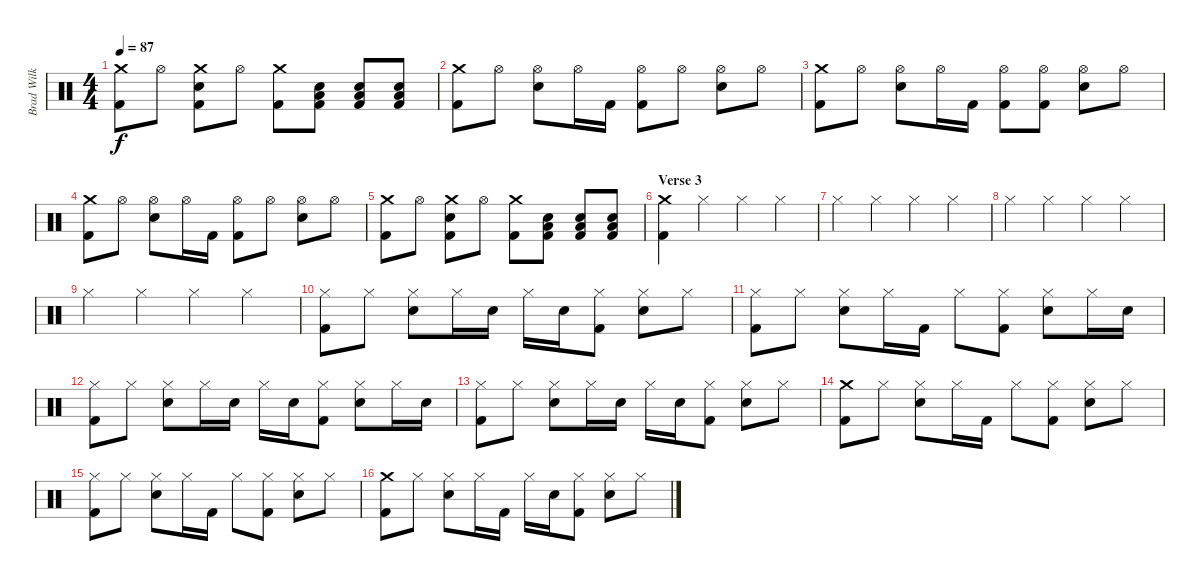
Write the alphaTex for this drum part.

\track ("Brad Wilk" "Brad Wilk") {instrument percussion}
\staff {score}
\articulation defaults
\ts (4 4)
\tempo 87
\clef neutral
\ks c
("Crash medium (hit)" "Kick (hit) 2").8{dy f} "Hi-Hat (open)".8 ("Crash medium (hit)" "Electric Snare (hit)" "Kick (hit) 2").8 "Hi-Hat (open)".8 ("Crash medium (hit)" "Kick (hit) 2").8 ("Electric Snare (hit)" "Low Tom (hit)" "Kick (hit) 2").8 ("Electric Snare (hit)" "Low Tom (hit)" "Kick (hit) 2").8 ("Electric Snare (hit)" "Low Tom (hit)" "Kick (hit) 2").8 |
("Crash medium (hit)" "Kick (hit) 2").8 "Hi-Hat (open)".8 ("Hi-Hat (open)" "Electric Snare (hit)").8 "Hi-Hat (open)".16 "Kick (hit) 2".16 ("Hi-Hat (open)" "Kick (hit) 2").8 "Hi-Hat (open)".8 ("Hi-Hat (open)" "Electric Snare (hit)").8 "Hi-Hat (open)".8 |
("Crash medium (hit)" "Kick (hit) 2").8 "Hi-Hat (open)".8 ("Hi-Hat (open)" "Electric Snare (hit)").8 "Hi-Hat (open)".16 "Kick (hit) 2".16 ("Hi-Hat (open)" "Kick (hit) 2").8 ("Hi-Hat (open)" "Kick (hit) 2").8 ("Hi-Hat (open)" "Electric Snare (hit)").8 "Hi-Hat (open)".8 |
("Crash medium (hit)" "Kick (hit) 2").8 "Hi-Hat (open)".8 ("Hi-Hat (open)" "Electric Snare (hit)").8 "Hi-Hat (open)".16 "Kick (hit) 2".16 ("Hi-Hat (open)" "Kick (hit) 2").8 "Hi-Hat (open)".8 ("Hi-Hat (open)" "Electric Snare (hit)").8 "Hi-Hat (open)".8 |
("Crash medium (hit)" "Kick (hit) 2").8 "Hi-Hat (open)".8 ("Crash medium (hit)" "Electric Snare (hit)" "Kick (hit) 2").8 "Hi-Hat (open)".8 ("Crash medium (hit)" "Kick (hit) 2").8 ("Electric Snare (hit)" "Low Tom (hit)" "Kick (hit) 2").8 ("Electric Snare (hit)" "Low Tom (hit)" "Kick (hit) 2").8 ("Electric Snare (hit)" "Low Tom (hit)" "Kick (hit) 2").8 |
\section ("" "Verse 3")
("Crash medium (hit)" "Kick (hit) 2").4 "Hi-Hat (closed)".4 "Hi-Hat (closed)".4 "Hi-Hat (closed)".4 |
"Hi-Hat (closed)".4 "Hi-Hat (closed)".4 "Hi-Hat (closed)".4 "Hi-Hat (closed)".4 |
"Hi-Hat (closed)".4 "Hi-Hat (closed)".4 "Hi-Hat (closed)".4 "Hi-Hat (closed)".4 |
"Hi-Hat (closed)".4 "Hi-Hat (closed)".4 "Hi-Hat (closed)".4 "Hi-Hat (closed)".4 |
("Hi-Hat (closed)" "Kick (hit) 2").8 "Hi-Hat (closed)".8 ("Hi-Hat (closed)" "Electric Snare (hit)").8 "Hi-Hat (closed)".16 "Electric Snare (hit)".16 "Hi-Hat (closed)".16 "Electric Snare (hit)".16 ("Hi-Hat (closed)" "Kick (hit) 2").8 ("Hi-Hat (closed)" "Electric Snare (hit)").8 "Hi-Hat (closed)".8 |
("Hi-Hat (closed)" "Kick (hit) 2").8 "Hi-Hat (closed)".8 ("Hi-Hat (closed)" "Electric Snare (hit)").8 "Hi-Hat (closed)".16 "Kick (hit) 2".16 "Hi-Hat (closed)".8 ("Hi-Hat (closed)" "Kick (hit) 2").8 ("Hi-Hat (closed)" "Electric Snare (hit)").8 "Hi-Hat (closed)".16 "Electric Snare (hit)".16 |
("Hi-Hat (closed)" "Kick (hit) 2").8 "Hi-Hat (closed)".8 ("Hi-Hat (closed)" "Electric Snare (hit)").8 "Hi-Hat (closed)".16 "Electric Snare (hit)".16 "Hi-Hat (closed)".16 "Electric Snare (hit)".16 ("Hi-Hat (closed)" "Kick (hit) 2").8 ("Hi-Hat (closed)" "Electric Snare (hit)").8 "Hi-Hat (closed)".16 "Electric Snare (hit)".16 |
("Hi-Hat (closed)" "Kick (hit) 2").8 "Hi-Hat (closed)".8 ("Hi-Hat (closed)" "Electric Snare (hit)").8 "Hi-Hat (closed)".16 "Electric Snare (hit)".16 "Hi-Hat (closed)".16 "Electric Snare (hit)".16 ("Hi-Hat (closed)" "Kick (hit) 2").8 ("Hi-Hat (closed)" "Electric Snare (hit)").8 "Hi-Hat (closed)".8 |
("Crash medium (hit)" "Kick (hit) 2").8 "Hi-Hat (closed)".8 ("Hi-Hat (closed)" "Electric Snare (hit)").8 "Hi-Hat (closed)".16 "Kick (hit) 2".16 "Hi-Hat (closed)".8 ("Hi-Hat (closed)" "Kick (hit) 2").8 ("Hi-Hat (closed)" "Electric Snare (hit)").8 "Hi-Hat (closed)".8 |
("Hi-Hat (closed)" "Kick (hit) 2").8 "Hi-Hat (closed)".8 ("Hi-Hat (closed)" "Electric Snare (hit)").8 "Hi-Hat (closed)".16 "Kick (hit) 2".16 "Hi-Hat (closed)".8 ("Hi-Hat (closed)" "Kick (hit) 2").8 ("Hi-Hat (closed)" "Electric Snare (hit)").8 "Hi-Hat (closed)".8 |
("Crash medium (hit)" "Kick (hit) 2").8 "Hi-Hat (closed)".8 ("Hi-Hat (closed)" "Electric Snare (hit)").8 "Hi-Hat (closed)".16 "Kick (hit) 2".16 "Hi-Hat (closed)".16 "Electric Snare (hit)".16 ("Hi-Hat (closed)" "Kick (hit) 2").8 ("Hi-Hat (closed)" "Electric Snare (hit)").8 "Hi-Hat (closed)".8
